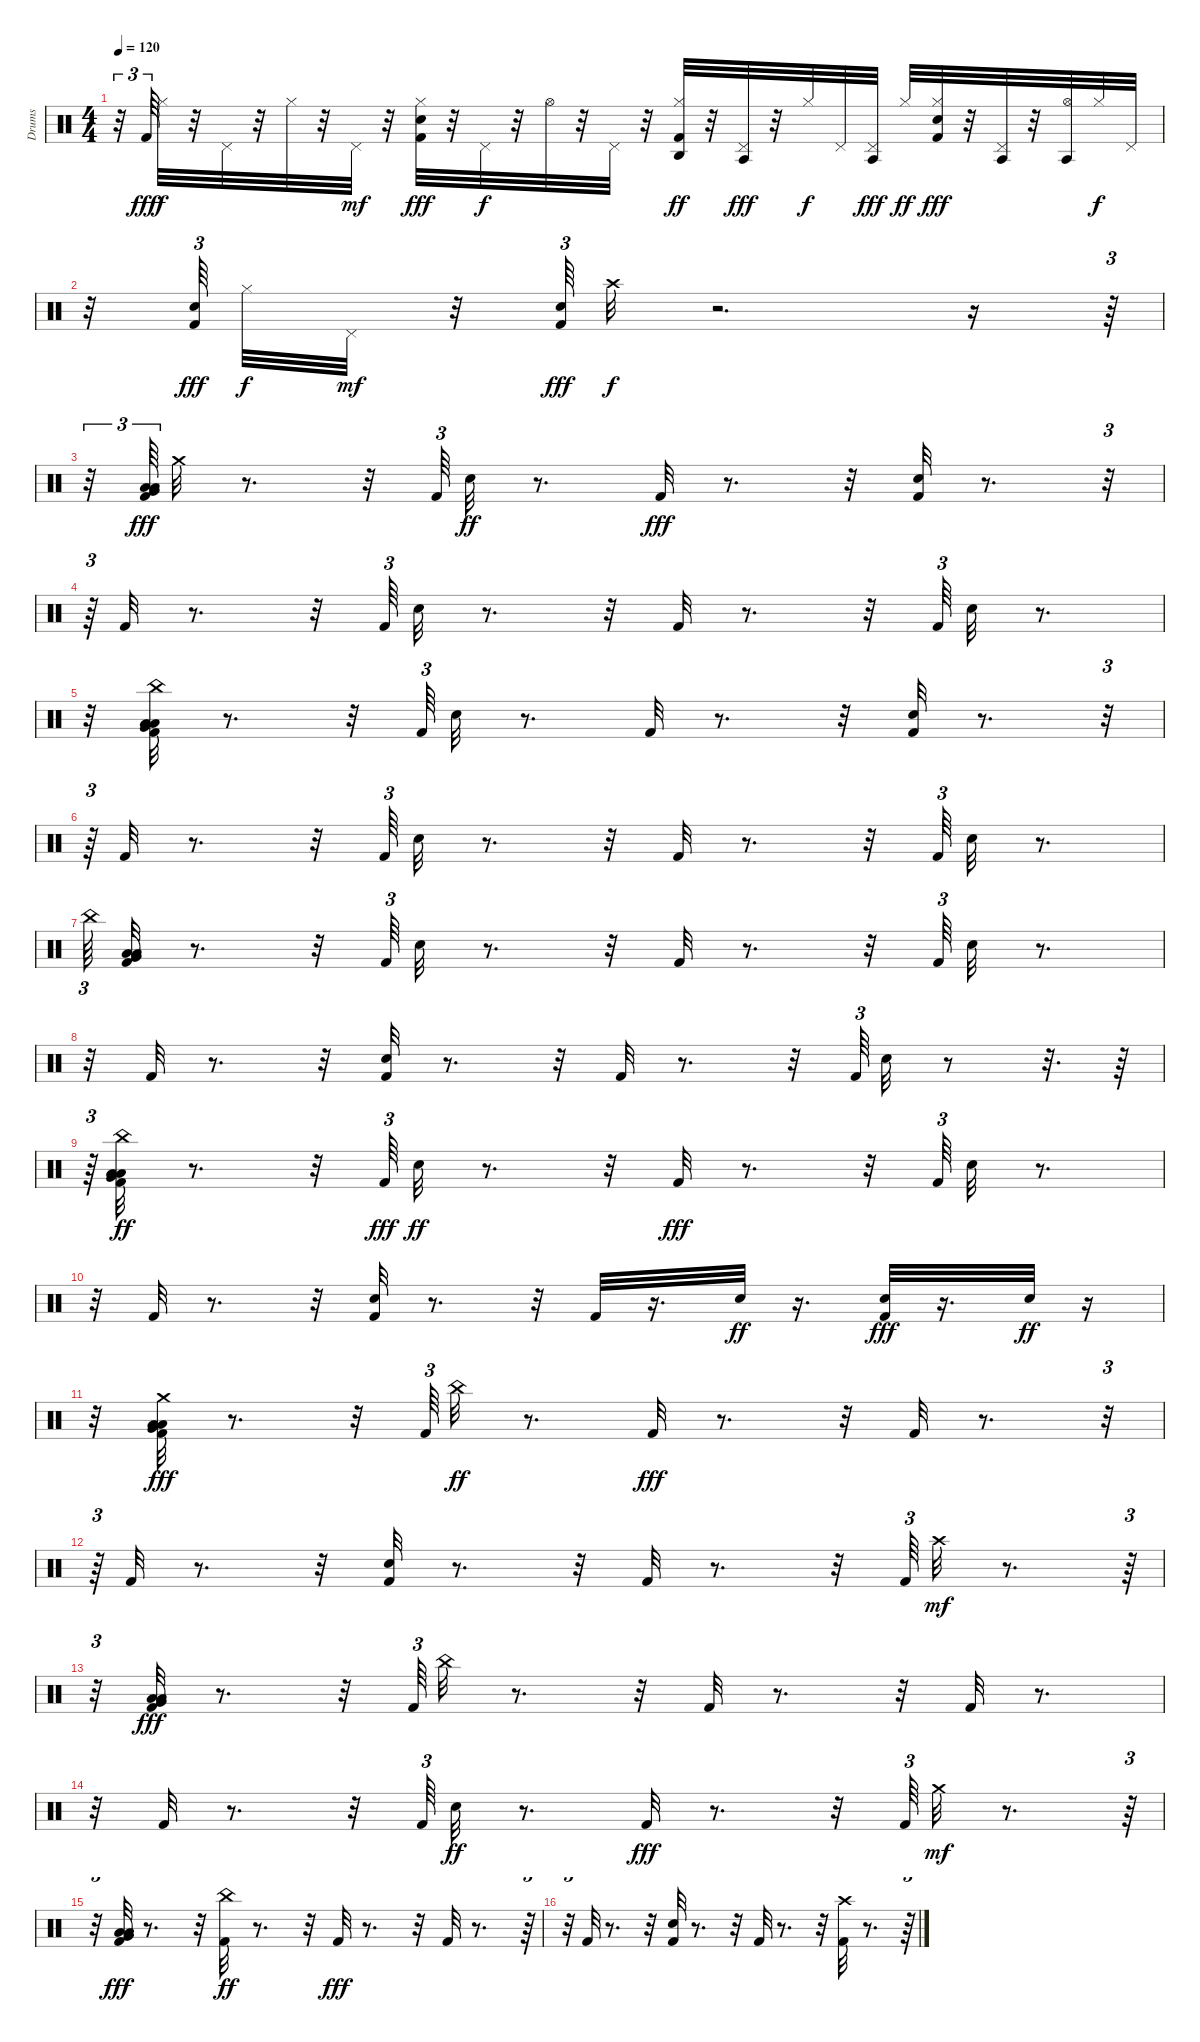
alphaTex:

\track ("Drums" "Drums") {instrument percussion}
\staff {score}
\articulation defaults
\ts (4 4)
\tempo 120
\clef neutral
\ks c
r.32{tu (3 2) dy f} "Kick (hit) 2".64{tu (3 2) dy fff} "Hi-Hat (closed)".32{dy f} r.32 "Pedal Hi-Hat (hit)".32 r.32 "Hi-Hat (closed)".32 r.32 "Pedal Hi-Hat (hit)".32{dy mf} r.32 ("Kick (hit) 2" "Hi-Hat (closed)" "Snare (hit) 2").32{dy fff} r.32 "Pedal Hi-Hat (hit)".32{dy f} r.32 "Hi-Hat (open)".32 r.32 "Pedal Hi-Hat (hit)".32 r.32 ("Hi-Hat (closed)" "Kick (hit) 2" "Agogo high (hit)").32{dy ff} r.32 ("Agogo tow (hit)" "Pedal Hi-Hat (hit)").32{dy fff} r.32 "Hi-Hat (closed)".32{dy f} "Pedal Hi-Hat (hit)".32 ("Pedal Hi-Hat (hit)" "Agogo tow (hit)").32{dy fff} "Hi-Hat (closed)".32{dy ff} ("Hi-Hat (closed)" "Snare (hit) 2" "Kick (hit) 2").32{dy fff} r.32 ("Pedal Hi-Hat (hit)" "Agogo tow (hit)").32 r.32 ("Agogo tow (hit)" "Hi-Hat (open)").32 "Hi-Hat (closed)".32{dy f} "Pedal Hi-Hat (hit)".32 |
r.32 ("Kick (hit) 2" "Snare (hit) 2").64{tu (3 2) dy fff beam splitsecondary} "Hi-Hat (closed)".32{dy f} "Pedal Hi-Hat (hit)".32{dy mf} r.32 ("Snare (hit) 2" "Kick (hit) 2").64{tu (3 2) dy fff} "Crash high (hit)".32{dy f} r.2{d} r.16 r.64{tu (3 2)} |
r.32{tu (3 2)} ("Low Floor Tom (hit)" "Very Low Tom (hit)" "Kick (hit) 2" "Low Tom (hit)").64{tu (3 2) dy fff} "Crash medium (hit)".32 r.8{d} r.32 "Kick (hit) 2".64{tu (3 2)} "Snare (hit) 2".32{dy ff} r.8{d} "Kick (hit) 2".32{dy fff} r.8{d} r.32 ("Snare (hit) 2" "Kick (hit) 2").32 r.8{d} r.32{tu (3 2)} |
r.64{tu (3 2)} "Kick (hit) 2".32 r.8{d} r.32 "Kick (hit) 2".64{tu (3 2)} "Snare (hit) 2".32 r.8{d} r.32 "Kick (hit) 2".32 r.8{d} r.32 "Kick (hit) 2".64{tu (3 2)} "Snare (hit) 2".32 r.8{d} |
r.32 ("Very Low Tom (hit)" "China (hit)" "Low Floor Tom (hit)" "Kick (hit) 2" "Low Tom (hit)").32 r.8{d} r.32 "Kick (hit) 2".64{tu (3 2)} "Snare (hit) 2".32 r.8{d} "Kick (hit) 2".32 r.8{d} r.32 ("Kick (hit) 2" "Snare (hit) 2").32 r.8{d} r.32{tu (3 2)} |
r.64{tu (3 2)} "Kick (hit) 2".32 r.8{d} r.32 "Kick (hit) 2".64{tu (3 2)} "Snare (hit) 2".32 r.8{d} r.32 "Kick (hit) 2".32 r.8{d} r.32 "Kick (hit) 2".64{tu (3 2)} "Snare (hit) 2".32 r.8{d} |
"China (hit)".64{tu (3 2)} ("Low Floor Tom (hit)" "Low Tom (hit)" "Kick (hit) 2" "Very Low Tom (hit)").32 r.8{d} r.32 "Kick (hit) 2".64{tu (3 2)} "Snare (hit) 2".32 r.8{d} r.32 "Kick (hit) 2".32 r.8{d} r.32 "Kick (hit) 2".64{tu (3 2)} "Snare (hit) 2".32 r.8{d} |
r.32 "Kick (hit) 2".32 r.8{d} r.32 ("Snare (hit) 2" "Kick (hit) 2").32 r.8{d} r.32 "Kick (hit) 2".32 r.8{d} r.32 "Kick (hit) 2".64{tu (3 2)} "Snare (hit) 2".32 r.8 r.32{d} r.64 |
r.64{tu (3 2)} ("Kick (hit) 2" "China (hit)" "Low Tom (hit)" "Very Low Tom (hit)" "Low Floor Tom (hit)").32{dy ff} r.8{d} r.32 "Kick (hit) 2".64{tu (3 2) dy fff} "Snare (hit) 2".32{dy ff} r.8{d} r.32 "Kick (hit) 2".32{dy fff} r.8{d} r.32 "Kick (hit) 2".64{tu (3 2)} "Snare (hit) 2".32 r.8{d} |
r.32 "Kick (hit) 2".32 r.8{d} r.32 ("Kick (hit) 2" "Snare (hit) 2").32 r.8{d} r.32 "Kick (hit) 2".32 r.16{d} "Snare (hit) 2".32{dy ff} r.16{d} ("Kick (hit) 2" "Snare (hit) 2").32{dy fff} r.16{d} "Snare (hit) 2".32{dy ff} r.16 |
r.32 ("Low Floor Tom (hit)" "Kick (hit) 2" "Crash medium (hit)" "Low Tom (hit)" "Very Low Tom (hit)").32{dy fff} r.8{d} r.32 "Kick (hit) 2".64{tu (3 2)} "China (hit)".32{dy ff} r.8{d} "Kick (hit) 2".32{dy fff} r.8{d} r.32 "Kick (hit) 2".32 r.8{d} r.32{tu (3 2)} |
r.64{tu (3 2)} "Kick (hit) 2".32 r.8{d} r.32 ("Snare (hit) 2" "Kick (hit) 2").32 r.8{d} r.32 "Kick (hit) 2".32 r.8{d} r.32 "Kick (hit) 2".64{tu (3 2)} "Crash high (hit)".32{dy mf} r.8{d} r.64{tu (3 2)} |
r.32{tu (3 2)} ("Low Tom (hit)" "Kick (hit) 2" "Low Floor Tom (hit)" "Very Low Tom (hit)").32{dy fff} r.8{d} r.32 "Kick (hit) 2".64{tu (3 2)} "China (hit)".32 r.8{d} r.32 "Kick (hit) 2".32 r.8{d} r.32 "Kick (hit) 2".32 r.8{d} |
r.32 "Kick (hit) 2".32 r.8{d} r.32 "Kick (hit) 2".64{tu (3 2)} "Snare (hit) 2".32{dy ff} r.8{d} "Kick (hit) 2".32{dy fff} r.8{d} r.32 "Kick (hit) 2".64{tu (3 2)} "Crash medium (hit)".32{dy mf} r.8{d} r.64{tu (3 2)} |
r.32{tu (3 2)} ("Low Tom (hit)" "Very Low Tom (hit)" "Low Floor Tom (hit)" "Kick (hit) 2").32{dy fff} r.8{d} r.32 ("Kick (hit) 2" "China (hit)").32{dy ff} r.8{d} r.32 "Kick (hit) 2".32{dy fff} r.8{d} r.32 "Kick (hit) 2".32 r.8{d} r.64{tu (3 2)} |
r.32{tu (3 2)} "Kick (hit) 2".32 r.8{d} r.32 ("Snare (hit) 2" "Kick (hit) 2").32 r.8{d} r.32 "Kick (hit) 2".32 r.8{d} r.32 ("Crash high (hit)" "Kick (hit) 2").32 r.8{d} r.64{tu (3 2)}
